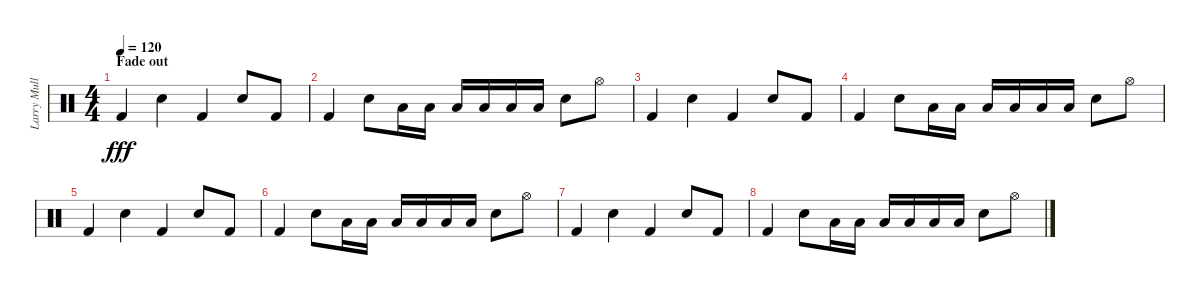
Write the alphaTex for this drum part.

\track ("Larry Mullen Jr" "Larry Mull") {instrument percussion}
\staff {score}
\articulation defaults
\ts (4 4)
\section ("" "Fade out")
\tempo 120
\clef neutral
\ks c "Kick (hit) 2".4{dy fff volume 8} "Snare (hit) 2".4 "Kick (hit) 2".4 "Snare (hit) 2".8 "Kick (hit) 2".8
|
"Kick (hit) 2".4 "Snare (hit) 2".8 "Low Floor Tom (hit)".16 "Low Floor Tom (hit)".16 "Low Floor Tom (hit)".16 "Low Floor Tom (hit)".16 "Low Floor Tom (hit)".16 "Low Floor Tom (hit)".16 "Snare (hit) 2".8 "Hi-Hat (open)".8 |
"Kick (hit) 2".4 "Snare (hit) 2".4 "Kick (hit) 2".4 "Snare (hit) 2".8 "Kick (hit) 2".8 |
"Kick (hit) 2".4 "Snare (hit) 2".8 "Low Floor Tom (hit)".16 "Low Floor Tom (hit)".16 "Low Floor Tom (hit)".16 "Low Floor Tom (hit)".16 "Low Floor Tom (hit)".16 "Low Floor Tom (hit)".16 "Snare (hit) 2".8 "Hi-Hat (open)".8 |
"Kick (hit) 2".4{volume 0} "Snare (hit) 2".4 "Kick (hit) 2".4 "Snare (hit) 2".8 "Kick (hit) 2".8 |
"Kick (hit) 2".4 "Snare (hit) 2".8 "Low Floor Tom (hit)".16 "Low Floor Tom (hit)".16 "Low Floor Tom (hit)".16 "Low Floor Tom (hit)".16 "Low Floor Tom (hit)".16 "Low Floor Tom (hit)".16 "Snare (hit) 2".8 "Hi-Hat (open)".8 |
"Kick (hit) 2".4 "Snare (hit) 2".4 "Kick (hit) 2".4 "Snare (hit) 2".8 "Kick (hit) 2".8 |
"Kick (hit) 2".4 "Snare (hit) 2".8 "Low Floor Tom (hit)".16 "Low Floor Tom (hit)".16 "Low Floor Tom (hit)".16 "Low Floor Tom (hit)".16 "Low Floor Tom (hit)".16 "Low Floor Tom (hit)".16 "Snare (hit) 2".8 "Hi-Hat (open)".8
